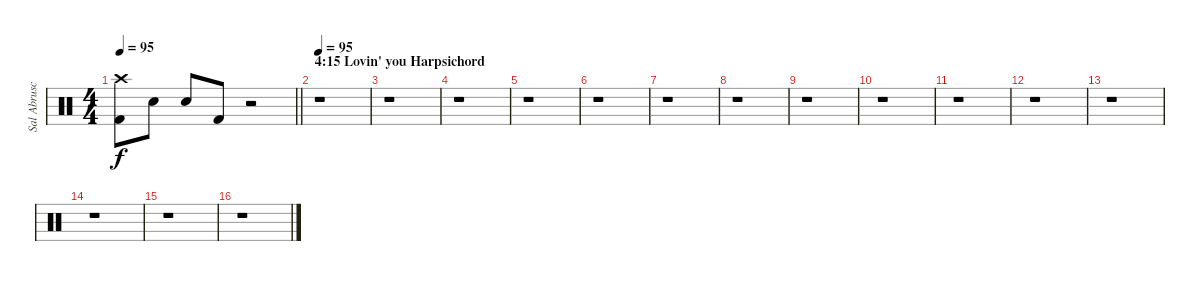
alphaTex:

\track ("Sal Abruscato (Drums)" "Sal Abrusc") {instrument percussion}
\staff {score}
\articulation defaults
\ts (4 4)
\tempo 95
\clef neutral
\barLineRight lightlight
\ks c
("Crash high (hit)" "Kick (hit) 2").8{dy f} "Electric Snare (hit)".8 "Electric Snare (hit)".8 "Kick (hit) 2".8 r.2 |
\section ("" "4:15 Lovin' you Harpsichord")
\tempo 95
r.1 |
r.1 |
r.1 |
r.1 |
r.1 |
r.1 |
r.1 |
r.1 |
r.1 |
r.1 |
r.1 |
r.1 |
r.1 |
r.1 |
r.1
